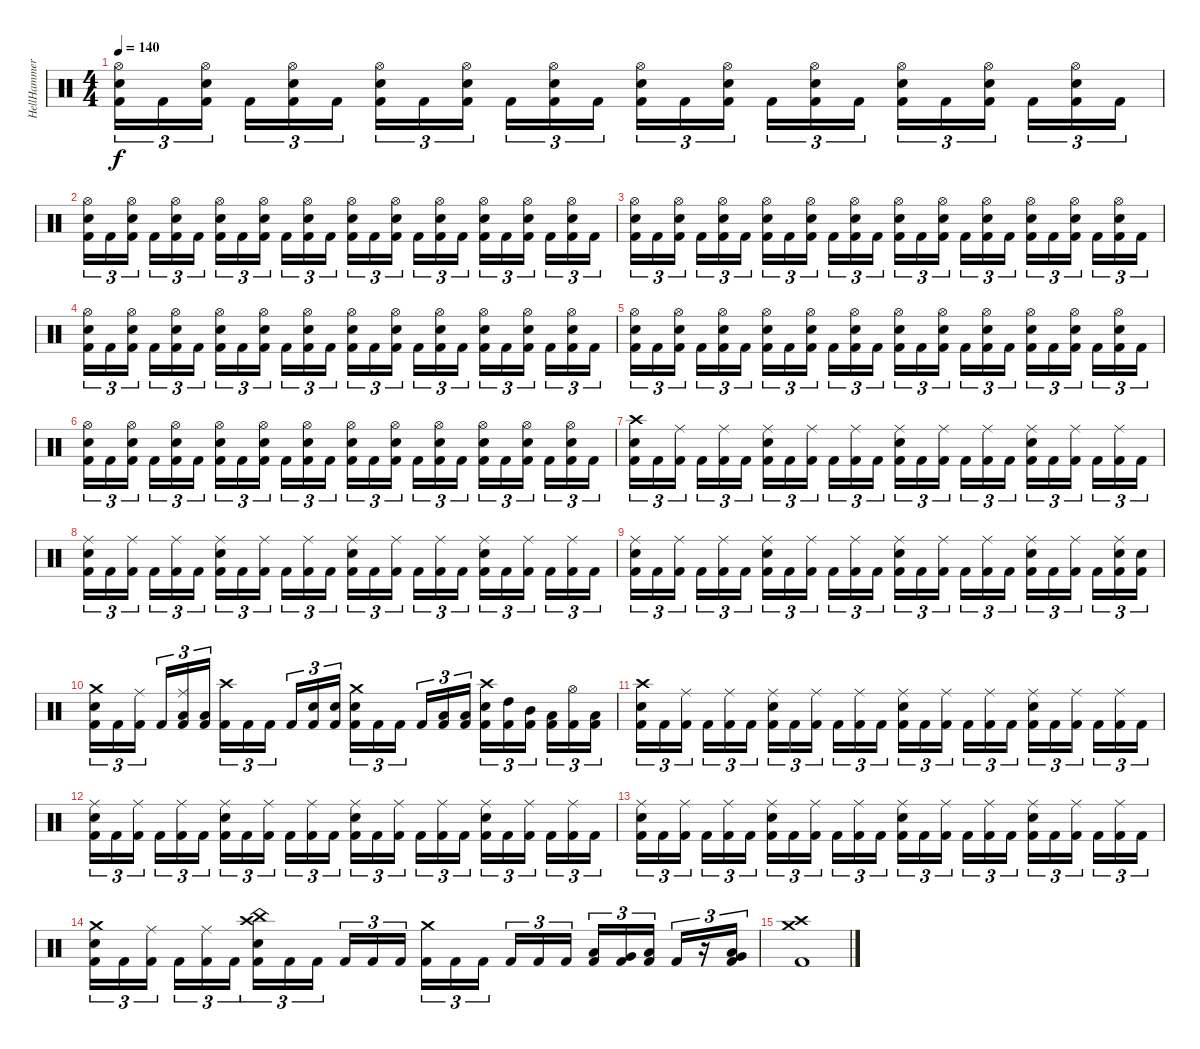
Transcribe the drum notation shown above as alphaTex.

\track ("HellHammer" "HellHammer") {instrument percussion}
\staff {score}
\articulation defaults
\ts (4 4)
\tempo 140
\clef neutral
\ks c
("Hi-Hat (open)" "Electric Snare (hit)" "Kick (hit) 2").16{tu (3 2) dy f} "Kick (hit) 2".16{tu (3 2)} ("Hi-Hat (open)" "Electric Snare (hit)" "Kick (hit) 2").16{tu (3 2) beam splitsecondary} "Kick (hit) 2".16{tu (3 2)} ("Hi-Hat (open)" "Electric Snare (hit)" "Kick (hit) 2").16{tu (3 2)} "Kick (hit) 2".16{tu (3 2)} ("Hi-Hat (open)" "Electric Snare (hit)" "Kick (hit) 2").16{tu (3 2)} "Kick (hit) 2".16{tu (3 2)} ("Hi-Hat (open)" "Electric Snare (hit)" "Kick (hit) 2").16{tu (3 2) beam splitsecondary} "Kick (hit) 2".16{tu (3 2)} ("Hi-Hat (open)" "Electric Snare (hit)" "Kick (hit) 2").16{tu (3 2)} "Kick (hit) 2".16{tu (3 2)} ("Hi-Hat (open)" "Electric Snare (hit)" "Kick (hit) 2").16{tu (3 2)} "Kick (hit) 2".16{tu (3 2)} ("Hi-Hat (open)" "Electric Snare (hit)" "Kick (hit) 2").16{tu (3 2) beam splitsecondary} "Kick (hit) 2".16{tu (3 2)} ("Hi-Hat (open)" "Electric Snare (hit)" "Kick (hit) 2").16{tu (3 2)} "Kick (hit) 2".16{tu (3 2)} ("Hi-Hat (open)" "Electric Snare (hit)" "Kick (hit) 2").16{tu (3 2)} "Kick (hit) 2".16{tu (3 2)} ("Hi-Hat (open)" "Electric Snare (hit)" "Kick (hit) 2").16{tu (3 2) beam splitsecondary} "Kick (hit) 2".16{tu (3 2)} ("Hi-Hat (open)" "Electric Snare (hit)" "Kick (hit) 2").16{tu (3 2)} "Kick (hit) 2".16{tu (3 2)} |
("Hi-Hat (open)" "Electric Snare (hit)" "Kick (hit) 2").16{tu (3 2)} "Kick (hit) 2".16{tu (3 2)} ("Hi-Hat (open)" "Electric Snare (hit)" "Kick (hit) 2").16{tu (3 2) beam splitsecondary} "Kick (hit) 2".16{tu (3 2)} ("Hi-Hat (open)" "Electric Snare (hit)" "Kick (hit) 2").16{tu (3 2)} "Kick (hit) 2".16{tu (3 2)} ("Hi-Hat (open)" "Electric Snare (hit)" "Kick (hit) 2").16{tu (3 2)} "Kick (hit) 2".16{tu (3 2)} ("Hi-Hat (open)" "Electric Snare (hit)" "Kick (hit) 2").16{tu (3 2) beam splitsecondary} "Kick (hit) 2".16{tu (3 2)} ("Hi-Hat (open)" "Electric Snare (hit)" "Kick (hit) 2").16{tu (3 2)} "Kick (hit) 2".16{tu (3 2)} ("Hi-Hat (open)" "Electric Snare (hit)" "Kick (hit) 2").16{tu (3 2)} "Kick (hit) 2".16{tu (3 2)} ("Hi-Hat (open)" "Electric Snare (hit)" "Kick (hit) 2").16{tu (3 2) beam splitsecondary} "Kick (hit) 2".16{tu (3 2)} ("Hi-Hat (open)" "Electric Snare (hit)" "Kick (hit) 2").16{tu (3 2)} "Kick (hit) 2".16{tu (3 2)} ("Hi-Hat (open)" "Electric Snare (hit)" "Kick (hit) 2").16{tu (3 2)} "Kick (hit) 2".16{tu (3 2)} ("Hi-Hat (open)" "Electric Snare (hit)" "Kick (hit) 2").16{tu (3 2) beam splitsecondary} "Kick (hit) 2".16{tu (3 2)} ("Hi-Hat (open)" "Electric Snare (hit)" "Kick (hit) 2").16{tu (3 2)} "Kick (hit) 2".16{tu (3 2)} |
("Hi-Hat (open)" "Electric Snare (hit)" "Kick (hit) 2").16{tu (3 2)} "Kick (hit) 2".16{tu (3 2)} ("Hi-Hat (open)" "Electric Snare (hit)" "Kick (hit) 2").16{tu (3 2) beam splitsecondary} "Kick (hit) 2".16{tu (3 2)} ("Hi-Hat (open)" "Electric Snare (hit)" "Kick (hit) 2").16{tu (3 2)} "Kick (hit) 2".16{tu (3 2)} ("Hi-Hat (open)" "Electric Snare (hit)" "Kick (hit) 2").16{tu (3 2)} "Kick (hit) 2".16{tu (3 2)} ("Hi-Hat (open)" "Electric Snare (hit)" "Kick (hit) 2").16{tu (3 2) beam splitsecondary} "Kick (hit) 2".16{tu (3 2)} ("Hi-Hat (open)" "Electric Snare (hit)" "Kick (hit) 2").16{tu (3 2)} "Kick (hit) 2".16{tu (3 2)} ("Hi-Hat (open)" "Electric Snare (hit)" "Kick (hit) 2").16{tu (3 2)} "Kick (hit) 2".16{tu (3 2)} ("Hi-Hat (open)" "Electric Snare (hit)" "Kick (hit) 2").16{tu (3 2) beam splitsecondary} "Kick (hit) 2".16{tu (3 2)} ("Hi-Hat (open)" "Electric Snare (hit)" "Kick (hit) 2").16{tu (3 2)} "Kick (hit) 2".16{tu (3 2)} ("Hi-Hat (open)" "Electric Snare (hit)" "Kick (hit) 2").16{tu (3 2)} "Kick (hit) 2".16{tu (3 2)} ("Hi-Hat (open)" "Electric Snare (hit)" "Kick (hit) 2").16{tu (3 2) beam splitsecondary} "Kick (hit) 2".16{tu (3 2)} ("Hi-Hat (open)" "Electric Snare (hit)" "Kick (hit) 2").16{tu (3 2)} "Kick (hit) 2".16{tu (3 2)} |
("Hi-Hat (open)" "Electric Snare (hit)" "Kick (hit) 2").16{tu (3 2)} "Kick (hit) 2".16{tu (3 2)} ("Hi-Hat (open)" "Electric Snare (hit)" "Kick (hit) 2").16{tu (3 2) beam splitsecondary} "Kick (hit) 2".16{tu (3 2)} ("Hi-Hat (open)" "Electric Snare (hit)" "Kick (hit) 2").16{tu (3 2)} "Kick (hit) 2".16{tu (3 2)} ("Hi-Hat (open)" "Electric Snare (hit)" "Kick (hit) 2").16{tu (3 2)} "Kick (hit) 2".16{tu (3 2)} ("Hi-Hat (open)" "Electric Snare (hit)" "Kick (hit) 2").16{tu (3 2) beam splitsecondary} "Kick (hit) 2".16{tu (3 2)} ("Hi-Hat (open)" "Electric Snare (hit)" "Kick (hit) 2").16{tu (3 2)} "Kick (hit) 2".16{tu (3 2)} ("Hi-Hat (open)" "Electric Snare (hit)" "Kick (hit) 2").16{tu (3 2)} "Kick (hit) 2".16{tu (3 2)} ("Hi-Hat (open)" "Electric Snare (hit)" "Kick (hit) 2").16{tu (3 2) beam splitsecondary} "Kick (hit) 2".16{tu (3 2)} ("Hi-Hat (open)" "Electric Snare (hit)" "Kick (hit) 2").16{tu (3 2)} "Kick (hit) 2".16{tu (3 2)} ("Hi-Hat (open)" "Electric Snare (hit)" "Kick (hit) 2").16{tu (3 2)} "Kick (hit) 2".16{tu (3 2)} ("Hi-Hat (open)" "Electric Snare (hit)" "Kick (hit) 2").16{tu (3 2) beam splitsecondary} "Kick (hit) 2".16{tu (3 2)} ("Hi-Hat (open)" "Electric Snare (hit)" "Kick (hit) 2").16{tu (3 2)} "Kick (hit) 2".16{tu (3 2)} |
("Hi-Hat (open)" "Electric Snare (hit)" "Kick (hit) 2").16{tu (3 2)} "Kick (hit) 2".16{tu (3 2)} ("Hi-Hat (open)" "Electric Snare (hit)" "Kick (hit) 2").16{tu (3 2) beam splitsecondary} "Kick (hit) 2".16{tu (3 2)} ("Hi-Hat (open)" "Electric Snare (hit)" "Kick (hit) 2").16{tu (3 2)} "Kick (hit) 2".16{tu (3 2)} ("Hi-Hat (open)" "Electric Snare (hit)" "Kick (hit) 2").16{tu (3 2)} "Kick (hit) 2".16{tu (3 2)} ("Hi-Hat (open)" "Electric Snare (hit)" "Kick (hit) 2").16{tu (3 2) beam splitsecondary} "Kick (hit) 2".16{tu (3 2)} ("Hi-Hat (open)" "Electric Snare (hit)" "Kick (hit) 2").16{tu (3 2)} "Kick (hit) 2".16{tu (3 2)} ("Hi-Hat (open)" "Electric Snare (hit)" "Kick (hit) 2").16{tu (3 2)} "Kick (hit) 2".16{tu (3 2)} ("Hi-Hat (open)" "Electric Snare (hit)" "Kick (hit) 2").16{tu (3 2) beam splitsecondary} "Kick (hit) 2".16{tu (3 2)} ("Hi-Hat (open)" "Electric Snare (hit)" "Kick (hit) 2").16{tu (3 2)} "Kick (hit) 2".16{tu (3 2)} ("Hi-Hat (open)" "Electric Snare (hit)" "Kick (hit) 2").16{tu (3 2)} "Kick (hit) 2".16{tu (3 2)} ("Hi-Hat (open)" "Electric Snare (hit)" "Kick (hit) 2").16{tu (3 2) beam splitsecondary} "Kick (hit) 2".16{tu (3 2)} ("Hi-Hat (open)" "Electric Snare (hit)" "Kick (hit) 2").16{tu (3 2)} "Kick (hit) 2".16{tu (3 2)} |
("Hi-Hat (open)" "Electric Snare (hit)" "Kick (hit) 2").16{tu (3 2)} "Kick (hit) 2".16{tu (3 2)} ("Hi-Hat (open)" "Electric Snare (hit)" "Kick (hit) 2").16{tu (3 2) beam splitsecondary} "Kick (hit) 2".16{tu (3 2)} ("Hi-Hat (open)" "Electric Snare (hit)" "Kick (hit) 2").16{tu (3 2)} "Kick (hit) 2".16{tu (3 2)} ("Hi-Hat (open)" "Electric Snare (hit)" "Kick (hit) 2").16{tu (3 2)} "Kick (hit) 2".16{tu (3 2)} ("Hi-Hat (open)" "Electric Snare (hit)" "Kick (hit) 2").16{tu (3 2) beam splitsecondary} "Kick (hit) 2".16{tu (3 2)} ("Hi-Hat (open)" "Electric Snare (hit)" "Kick (hit) 2").16{tu (3 2)} "Kick (hit) 2".16{tu (3 2)} ("Hi-Hat (open)" "Electric Snare (hit)" "Kick (hit) 2").16{tu (3 2)} "Kick (hit) 2".16{tu (3 2)} ("Hi-Hat (open)" "Electric Snare (hit)" "Kick (hit) 2").16{tu (3 2) beam splitsecondary} "Kick (hit) 2".16{tu (3 2)} ("Hi-Hat (open)" "Electric Snare (hit)" "Kick (hit) 2").16{tu (3 2)} "Kick (hit) 2".16{tu (3 2)} ("Hi-Hat (open)" "Electric Snare (hit)" "Kick (hit) 2").16{tu (3 2)} "Kick (hit) 2".16{tu (3 2)} ("Hi-Hat (open)" "Electric Snare (hit)" "Kick (hit) 2").16{tu (3 2) beam splitsecondary} "Kick (hit) 2".16{tu (3 2)} ("Hi-Hat (open)" "Electric Snare (hit)" "Kick (hit) 2").16{tu (3 2)} "Kick (hit) 2".16{tu (3 2)} |
("Crash high (hit)" "Electric Snare (hit)" "Kick (hit) 2").16{tu (3 2)} "Kick (hit) 2".16{tu (3 2)} ("Ride (middle)" "Kick (hit) 2").16{tu (3 2) beam splitsecondary} "Kick (hit) 2".16{tu (3 2)} ("Ride (middle)" "Kick (hit) 2").16{tu (3 2)} "Kick (hit) 2".16{tu (3 2)} ("Ride (middle)" "Electric Snare (hit)" "Kick (hit) 2").16{tu (3 2)} "Kick (hit) 2".16{tu (3 2)} ("Ride (middle)" "Kick (hit) 2").16{tu (3 2) beam splitsecondary} "Kick (hit) 2".16{tu (3 2)} ("Ride (middle)" "Kick (hit) 2").16{tu (3 2)} "Kick (hit) 2".16{tu (3 2)} ("Ride (middle)" "Electric Snare (hit)" "Kick (hit) 2").16{tu (3 2)} "Kick (hit) 2".16{tu (3 2)} ("Ride (middle)" "Kick (hit) 2").16{tu (3 2) beam splitsecondary} "Kick (hit) 2".16{tu (3 2)} ("Ride (middle)" "Kick (hit) 2").16{tu (3 2)} "Kick (hit) 2".16{tu (3 2)} ("Ride (middle)" "Electric Snare (hit)" "Kick (hit) 2").16{tu (3 2)} "Kick (hit) 2".16{tu (3 2)} ("Ride (middle)" "Kick (hit) 2").16{tu (3 2) beam splitsecondary} "Kick (hit) 2".16{tu (3 2)} ("Ride (middle)" "Kick (hit) 2").16{tu (3 2)} "Kick (hit) 2".16{tu (3 2)} |
("Ride (middle)" "Electric Snare (hit)" "Kick (hit) 2").16{tu (3 2)} "Kick (hit) 2".16{tu (3 2)} ("Ride (middle)" "Kick (hit) 2").16{tu (3 2) beam splitsecondary} "Kick (hit) 2".16{tu (3 2)} ("Ride (middle)" "Kick (hit) 2").16{tu (3 2)} "Kick (hit) 2".16{tu (3 2)} ("Ride (middle)" "Electric Snare (hit)" "Kick (hit) 2").16{tu (3 2)} "Kick (hit) 2".16{tu (3 2)} ("Ride (middle)" "Kick (hit) 2").16{tu (3 2) beam splitsecondary} "Kick (hit) 2".16{tu (3 2)} ("Ride (middle)" "Kick (hit) 2").16{tu (3 2)} "Kick (hit) 2".16{tu (3 2)} ("Ride (middle)" "Electric Snare (hit)" "Kick (hit) 2").16{tu (3 2)} "Kick (hit) 2".16{tu (3 2)} ("Ride (middle)" "Kick (hit) 2").16{tu (3 2) beam splitsecondary} "Kick (hit) 2".16{tu (3 2)} ("Ride (middle)" "Kick (hit) 2").16{tu (3 2)} "Kick (hit) 2".16{tu (3 2)} ("Ride (middle)" "Electric Snare (hit)" "Kick (hit) 2").16{tu (3 2)} "Kick (hit) 2".16{tu (3 2)} ("Ride (middle)" "Kick (hit) 2").16{tu (3 2) beam splitsecondary} "Kick (hit) 2".16{tu (3 2)} ("Ride (middle)" "Kick (hit) 2").16{tu (3 2)} "Kick (hit) 2".16{tu (3 2)} |
("Ride (middle)" "Electric Snare (hit)" "Kick (hit) 2").16{tu (3 2)} "Kick (hit) 2".16{tu (3 2)} ("Ride (middle)" "Kick (hit) 2").16{tu (3 2) beam splitsecondary} "Kick (hit) 2".16{tu (3 2)} ("Ride (middle)" "Kick (hit) 2").16{tu (3 2)} "Kick (hit) 2".16{tu (3 2)} ("Ride (middle)" "Electric Snare (hit)" "Kick (hit) 2").16{tu (3 2)} "Kick (hit) 2".16{tu (3 2)} ("Ride (middle)" "Kick (hit) 2").16{tu (3 2) beam splitsecondary} "Kick (hit) 2".16{tu (3 2)} ("Ride (middle)" "Kick (hit) 2").16{tu (3 2)} "Kick (hit) 2".16{tu (3 2)} ("Ride (middle)" "Electric Snare (hit)" "Kick (hit) 2").16{tu (3 2)} "Kick (hit) 2".16{tu (3 2)} ("Ride (middle)" "Kick (hit) 2").16{tu (3 2) beam splitsecondary} "Kick (hit) 2".16{tu (3 2)} ("Ride (middle)" "Kick (hit) 2").16{tu (3 2)} "Kick (hit) 2".16{tu (3 2)} ("Ride (middle)" "Electric Snare (hit)" "Kick (hit) 2").16{tu (3 2)} "Kick (hit) 2".16{tu (3 2)} ("Ride (middle)" "Kick (hit) 2").16{tu (3 2) beam splitsecondary} "Kick (hit) 2".16{tu (3 2)} ("Ride (middle)" "Electric Snare (hit)" "Kick (hit) 2").16{tu (3 2)} ("Electric Snare (hit)" "Kick (hit) 2").16{tu (3 2)} |
("Crash medium (hit)" "Electric Snare (hit)" "Kick (hit) 2").16{tu (3 2)} "Kick (hit) 2".16{tu (3 2)} ("Ride (middle)" "Kick (hit) 2").16{tu (3 2) beam splitsecondary} "Kick (hit) 2".16{tu (3 2)} ("Ride (middle)" "Low Tom (hit)" "Kick (hit) 2").16{tu (3 2)} ("Low Tom (hit)" "Kick (hit) 2").16{tu (3 2)} ("Crash high (hit)" "Kick (hit) 2").16{tu (3 2)} "Kick (hit) 2".16{tu (3 2)} "Kick (hit) 2".16{tu (3 2) beam splitsecondary} "Kick (hit) 2".16{tu (3 2)} ("Electric Snare (hit)" "Kick (hit) 2").16{tu (3 2)} ("Electric Snare (hit)" "Kick (hit) 2").16{tu (3 2)} ("Crash medium (hit)" "Electric Snare (hit)" "Kick (hit) 2").16{tu (3 2)} "Kick (hit) 2".16{tu (3 2)} "Kick (hit) 2".16{tu (3 2) beam splitsecondary} "Kick (hit) 2".16{tu (3 2)} ("Low Tom (hit)" "Kick (hit) 2").16{tu (3 2)} ("Low Tom (hit)" "Kick (hit) 2").16{tu (3 2)} ("Crash high (hit)" "Electric Snare (hit)" "Kick (hit) 2").16{tu (3 2)} ("High Tom (hit)" "Kick (hit) 2").16{tu (3 2)} ("Mid Tom (hit)" "Kick (hit) 2").16{tu (3 2) beam splitsecondary} ("Low Tom (hit)" "Kick (hit) 2").16{tu (3 2)} ("Hi-Hat (open)" "Kick (hit) 2").16{tu (3 2)} ("Low Floor Tom (hit)" "Kick (hit) 2").16{tu (3 2)} |
("Crash high (hit)" "Electric Snare (hit)" "Kick (hit) 2").16{tu (3 2)} "Kick (hit) 2".16{tu (3 2)} ("Ride (middle)" "Kick (hit) 2").16{tu (3 2) beam splitsecondary} "Kick (hit) 2".16{tu (3 2)} ("Ride (middle)" "Kick (hit) 2").16{tu (3 2)} "Kick (hit) 2".16{tu (3 2)} ("Ride (middle)" "Electric Snare (hit)" "Kick (hit) 2").16{tu (3 2)} "Kick (hit) 2".16{tu (3 2)} ("Ride (middle)" "Kick (hit) 2").16{tu (3 2) beam splitsecondary} "Kick (hit) 2".16{tu (3 2)} ("Ride (middle)" "Kick (hit) 2").16{tu (3 2)} "Kick (hit) 2".16{tu (3 2)} ("Ride (middle)" "Electric Snare (hit)" "Kick (hit) 2").16{tu (3 2)} "Kick (hit) 2".16{tu (3 2)} ("Ride (middle)" "Kick (hit) 2").16{tu (3 2) beam splitsecondary} "Kick (hit) 2".16{tu (3 2)} ("Ride (middle)" "Kick (hit) 2").16{tu (3 2)} "Kick (hit) 2".16{tu (3 2)} ("Ride (middle)" "Electric Snare (hit)" "Kick (hit) 2").16{tu (3 2)} "Kick (hit) 2".16{tu (3 2)} ("Ride (middle)" "Kick (hit) 2").16{tu (3 2) beam splitsecondary} "Kick (hit) 2".16{tu (3 2)} ("Ride (middle)" "Kick (hit) 2").16{tu (3 2)} "Kick (hit) 2".16{tu (3 2)} |
("Ride (middle)" "Electric Snare (hit)" "Kick (hit) 2").16{tu (3 2)} "Kick (hit) 2".16{tu (3 2)} ("Ride (middle)" "Kick (hit) 2").16{tu (3 2) beam splitsecondary} "Kick (hit) 2".16{tu (3 2)} ("Ride (middle)" "Kick (hit) 2").16{tu (3 2)} "Kick (hit) 2".16{tu (3 2)} ("Ride (middle)" "Electric Snare (hit)" "Kick (hit) 2").16{tu (3 2)} "Kick (hit) 2".16{tu (3 2)} ("Ride (middle)" "Kick (hit) 2").16{tu (3 2) beam splitsecondary} "Kick (hit) 2".16{tu (3 2)} ("Ride (middle)" "Kick (hit) 2").16{tu (3 2)} "Kick (hit) 2".16{tu (3 2)} ("Ride (middle)" "Electric Snare (hit)" "Kick (hit) 2").16{tu (3 2)} "Kick (hit) 2".16{tu (3 2)} ("Ride (middle)" "Kick (hit) 2").16{tu (3 2) beam splitsecondary} "Kick (hit) 2".16{tu (3 2)} ("Ride (middle)" "Kick (hit) 2").16{tu (3 2)} "Kick (hit) 2".16{tu (3 2)} ("Ride (middle)" "Electric Snare (hit)" "Kick (hit) 2").16{tu (3 2)} "Kick (hit) 2".16{tu (3 2)} ("Ride (middle)" "Kick (hit) 2").16{tu (3 2) beam splitsecondary} "Kick (hit) 2".16{tu (3 2)} ("Ride (middle)" "Kick (hit) 2").16{tu (3 2)} "Kick (hit) 2".16{tu (3 2)} |
("Ride (middle)" "Electric Snare (hit)" "Kick (hit) 2").16{tu (3 2)} "Kick (hit) 2".16{tu (3 2)} ("Ride (middle)" "Kick (hit) 2").16{tu (3 2) beam splitsecondary} "Kick (hit) 2".16{tu (3 2)} ("Ride (middle)" "Kick (hit) 2").16{tu (3 2)} "Kick (hit) 2".16{tu (3 2)} ("Ride (middle)" "Electric Snare (hit)" "Kick (hit) 2").16{tu (3 2)} "Kick (hit) 2".16{tu (3 2)} ("Ride (middle)" "Kick (hit) 2").16{tu (3 2) beam splitsecondary} "Kick (hit) 2".16{tu (3 2)} ("Ride (middle)" "Kick (hit) 2").16{tu (3 2)} "Kick (hit) 2".16{tu (3 2)} ("Ride (middle)" "Electric Snare (hit)" "Kick (hit) 2").16{tu (3 2)} "Kick (hit) 2".16{tu (3 2)} ("Ride (middle)" "Kick (hit) 2").16{tu (3 2) beam splitsecondary} "Kick (hit) 2".16{tu (3 2)} ("Ride (middle)" "Kick (hit) 2").16{tu (3 2)} "Kick (hit) 2".16{tu (3 2)} ("Ride (middle)" "Electric Snare (hit)" "Kick (hit) 2").16{tu (3 2)} "Kick (hit) 2".16{tu (3 2)} ("Ride (middle)" "Kick (hit) 2").16{tu (3 2) beam splitsecondary} "Kick (hit) 2".16{tu (3 2)} ("Ride (middle)" "Kick (hit) 2").16{tu (3 2)} "Kick (hit) 2".16{tu (3 2)} |
("Crash medium (hit)" "Electric Snare (hit)" "Kick (hit) 2").16{tu (3 2)} "Kick (hit) 2".16{tu (3 2)} ("Ride (middle)" "Kick (hit) 2").16{tu (3 2) beam splitsecondary} "Kick (hit) 2".16{tu (3 2)} ("Ride (middle)" "Kick (hit) 2").16{tu (3 2)} "Kick (hit) 2".16{tu (3 2)} ("China (hit)" "Crash high (hit)" "Electric Snare (hit)" "Kick (hit) 2").16{tu (3 2)} "Kick (hit) 2".16{tu (3 2)} "Kick (hit) 2".16{tu (3 2) beam splitsecondary} "Kick (hit) 2".16{tu (3 2)} "Kick (hit) 2".16{tu (3 2)} "Kick (hit) 2".16{tu (3 2)} ("Crash medium (hit)" "Kick (hit) 2").16{tu (3 2)} "Kick (hit) 2".16{tu (3 2)} "Kick (hit) 2".16{tu (3 2) beam splitsecondary} "Kick (hit) 2".16{tu (3 2)} "Kick (hit) 2".16{tu (3 2)} "Kick (hit) 2".16{tu (3 2)} ("Low Tom (hit)" "Kick (hit) 2").16{tu (3 2)} ("Very Low Tom (hit)" "Kick (hit) 2").16{tu (3 2)} ("Low Tom (hit)" "Kick (hit) 2").16{tu (3 2) beam splitsecondary} "Kick (hit) 2".16{tu (3 2)} r.16{tu (3 2)} ("Very Low Tom (hit)" "Low Tom (hit)" "Kick (hit) 2").16{tu (3 2)} |
("Crash medium (hit)" "Crash high (hit)" "Kick (hit) 2").1
